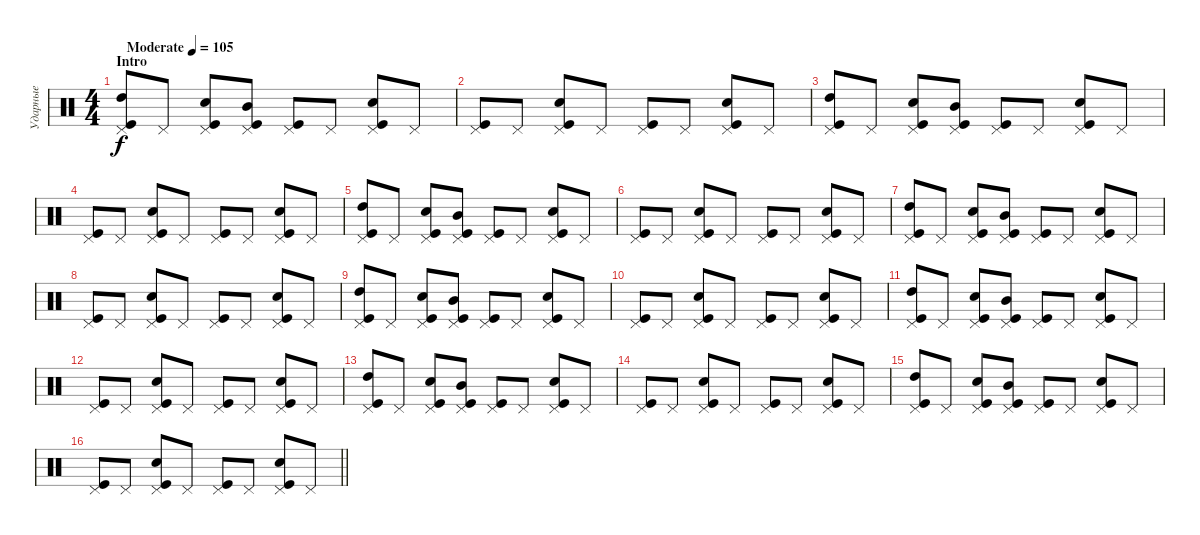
\track ("Ударные" "Ударные") {instrument percussion}
\staff {score}
\articulation defaults
\ts (4 4)
\section ("" "Intro")
\tempo (105 "Moderate")
\clef neutral
\ks c
("Pedal Hi-Hat (hit)" "Kick (hit)" "High Tom (hit)").8{dy f} "Pedal Hi-Hat (hit)".8 ("Pedal Hi-Hat (hit)" "Kick (hit)" "Snare (hit) 2").8 ("Pedal Hi-Hat (hit)" "Kick (hit)" "Mid Tom (hit)").8 ("Pedal Hi-Hat (hit)" "Kick (hit)").8 "Pedal Hi-Hat (hit)".8 ("Pedal Hi-Hat (hit)" "Kick (hit)" "Snare (hit) 2").8 "Pedal Hi-Hat (hit)".8 |
("Pedal Hi-Hat (hit)" "Kick (hit)").8 "Pedal Hi-Hat (hit)".8 ("Pedal Hi-Hat (hit)" "Kick (hit)" "Snare (hit) 2").8 "Pedal Hi-Hat (hit)".8 ("Pedal Hi-Hat (hit)" "Kick (hit)").8 "Pedal Hi-Hat (hit)".8 ("Pedal Hi-Hat (hit)" "Kick (hit)" "Snare (hit) 2").8 "Pedal Hi-Hat (hit)".8 |
("Pedal Hi-Hat (hit)" "Kick (hit)" "High Tom (hit)").8 "Pedal Hi-Hat (hit)".8 ("Pedal Hi-Hat (hit)" "Kick (hit)" "Snare (hit) 2").8 ("Pedal Hi-Hat (hit)" "Kick (hit)" "Mid Tom (hit)").8 ("Pedal Hi-Hat (hit)" "Kick (hit)").8 "Pedal Hi-Hat (hit)".8 ("Pedal Hi-Hat (hit)" "Kick (hit)" "Snare (hit) 2").8 "Pedal Hi-Hat (hit)".8 |
("Pedal Hi-Hat (hit)" "Kick (hit)").8 "Pedal Hi-Hat (hit)".8 ("Pedal Hi-Hat (hit)" "Kick (hit)" "Snare (hit) 2").8 "Pedal Hi-Hat (hit)".8 ("Pedal Hi-Hat (hit)" "Kick (hit)").8 "Pedal Hi-Hat (hit)".8 ("Pedal Hi-Hat (hit)" "Kick (hit)" "Snare (hit) 2").8 "Pedal Hi-Hat (hit)".8 |
("Pedal Hi-Hat (hit)" "Kick (hit)" "High Tom (hit)").8 "Pedal Hi-Hat (hit)".8 ("Pedal Hi-Hat (hit)" "Kick (hit)" "Snare (hit) 2").8 ("Pedal Hi-Hat (hit)" "Kick (hit)" "Mid Tom (hit)").8 ("Pedal Hi-Hat (hit)" "Kick (hit)").8 "Pedal Hi-Hat (hit)".8 ("Pedal Hi-Hat (hit)" "Kick (hit)" "Snare (hit) 2").8 "Pedal Hi-Hat (hit)".8 |
("Pedal Hi-Hat (hit)" "Kick (hit)").8 "Pedal Hi-Hat (hit)".8 ("Pedal Hi-Hat (hit)" "Kick (hit)" "Snare (hit) 2").8 "Pedal Hi-Hat (hit)".8 ("Pedal Hi-Hat (hit)" "Kick (hit)").8 "Pedal Hi-Hat (hit)".8 ("Pedal Hi-Hat (hit)" "Kick (hit)" "Snare (hit) 2").8 "Pedal Hi-Hat (hit)".8 |
("Pedal Hi-Hat (hit)" "Kick (hit)" "High Tom (hit)").8 "Pedal Hi-Hat (hit)".8 ("Pedal Hi-Hat (hit)" "Kick (hit)" "Snare (hit) 2").8 ("Pedal Hi-Hat (hit)" "Kick (hit)" "Mid Tom (hit)").8 ("Pedal Hi-Hat (hit)" "Kick (hit)").8 "Pedal Hi-Hat (hit)".8 ("Pedal Hi-Hat (hit)" "Kick (hit)" "Snare (hit) 2").8 "Pedal Hi-Hat (hit)".8 |
("Pedal Hi-Hat (hit)" "Kick (hit)").8 "Pedal Hi-Hat (hit)".8 ("Pedal Hi-Hat (hit)" "Kick (hit)" "Snare (hit) 2").8 "Pedal Hi-Hat (hit)".8 ("Pedal Hi-Hat (hit)" "Kick (hit)").8 "Pedal Hi-Hat (hit)".8 ("Pedal Hi-Hat (hit)" "Kick (hit)" "Snare (hit) 2").8 "Pedal Hi-Hat (hit)".8 |
("Pedal Hi-Hat (hit)" "Kick (hit)" "High Tom (hit)").8 "Pedal Hi-Hat (hit)".8 ("Pedal Hi-Hat (hit)" "Kick (hit)" "Snare (hit) 2").8 ("Pedal Hi-Hat (hit)" "Kick (hit)" "Mid Tom (hit)").8 ("Pedal Hi-Hat (hit)" "Kick (hit)").8 "Pedal Hi-Hat (hit)".8 ("Pedal Hi-Hat (hit)" "Kick (hit)" "Snare (hit) 2").8 "Pedal Hi-Hat (hit)".8 |
("Pedal Hi-Hat (hit)" "Kick (hit)").8 "Pedal Hi-Hat (hit)".8 ("Pedal Hi-Hat (hit)" "Kick (hit)" "Snare (hit) 2").8 "Pedal Hi-Hat (hit)".8 ("Pedal Hi-Hat (hit)" "Kick (hit)").8 "Pedal Hi-Hat (hit)".8 ("Pedal Hi-Hat (hit)" "Kick (hit)" "Snare (hit) 2").8 "Pedal Hi-Hat (hit)".8 |
("Pedal Hi-Hat (hit)" "Kick (hit)" "High Tom (hit)").8 "Pedal Hi-Hat (hit)".8 ("Pedal Hi-Hat (hit)" "Kick (hit)" "Snare (hit) 2").8 ("Pedal Hi-Hat (hit)" "Kick (hit)" "Mid Tom (hit)").8 ("Pedal Hi-Hat (hit)" "Kick (hit)").8 "Pedal Hi-Hat (hit)".8 ("Pedal Hi-Hat (hit)" "Kick (hit)" "Snare (hit) 2").8 "Pedal Hi-Hat (hit)".8 |
("Pedal Hi-Hat (hit)" "Kick (hit)").8 "Pedal Hi-Hat (hit)".8 ("Pedal Hi-Hat (hit)" "Kick (hit)" "Snare (hit) 2").8 "Pedal Hi-Hat (hit)".8 ("Pedal Hi-Hat (hit)" "Kick (hit)").8 "Pedal Hi-Hat (hit)".8 ("Pedal Hi-Hat (hit)" "Kick (hit)" "Snare (hit) 2").8 "Pedal Hi-Hat (hit)".8 |
("Pedal Hi-Hat (hit)" "Kick (hit)" "High Tom (hit)").8 "Pedal Hi-Hat (hit)".8 ("Pedal Hi-Hat (hit)" "Kick (hit)" "Snare (hit) 2").8 ("Pedal Hi-Hat (hit)" "Kick (hit)" "Mid Tom (hit)").8 ("Pedal Hi-Hat (hit)" "Kick (hit)").8 "Pedal Hi-Hat (hit)".8 ("Pedal Hi-Hat (hit)" "Kick (hit)" "Snare (hit) 2").8 "Pedal Hi-Hat (hit)".8 |
("Pedal Hi-Hat (hit)" "Kick (hit)").8 "Pedal Hi-Hat (hit)".8 ("Pedal Hi-Hat (hit)" "Kick (hit)" "Snare (hit) 2").8 "Pedal Hi-Hat (hit)".8 ("Pedal Hi-Hat (hit)" "Kick (hit)").8 "Pedal Hi-Hat (hit)".8 ("Pedal Hi-Hat (hit)" "Kick (hit)" "Snare (hit) 2").8 "Pedal Hi-Hat (hit)".8 |
("Pedal Hi-Hat (hit)" "Kick (hit)" "High Tom (hit)").8 "Pedal Hi-Hat (hit)".8 ("Pedal Hi-Hat (hit)" "Kick (hit)" "Snare (hit) 2").8 ("Pedal Hi-Hat (hit)" "Kick (hit)" "Mid Tom (hit)").8 ("Pedal Hi-Hat (hit)" "Kick (hit)").8 "Pedal Hi-Hat (hit)".8 ("Pedal Hi-Hat (hit)" "Kick (hit)" "Snare (hit) 2").8 "Pedal Hi-Hat (hit)".8 |
\barLineRight lightlight
("Pedal Hi-Hat (hit)" "Kick (hit)").8 "Pedal Hi-Hat (hit)".8 ("Pedal Hi-Hat (hit)" "Kick (hit)" "Snare (hit) 2").8 "Pedal Hi-Hat (hit)".8 ("Pedal Hi-Hat (hit)" "Kick (hit)").8 "Pedal Hi-Hat (hit)".8 ("Pedal Hi-Hat (hit)" "Kick (hit)" "Snare (hit) 2").8 "Pedal Hi-Hat (hit)".8
